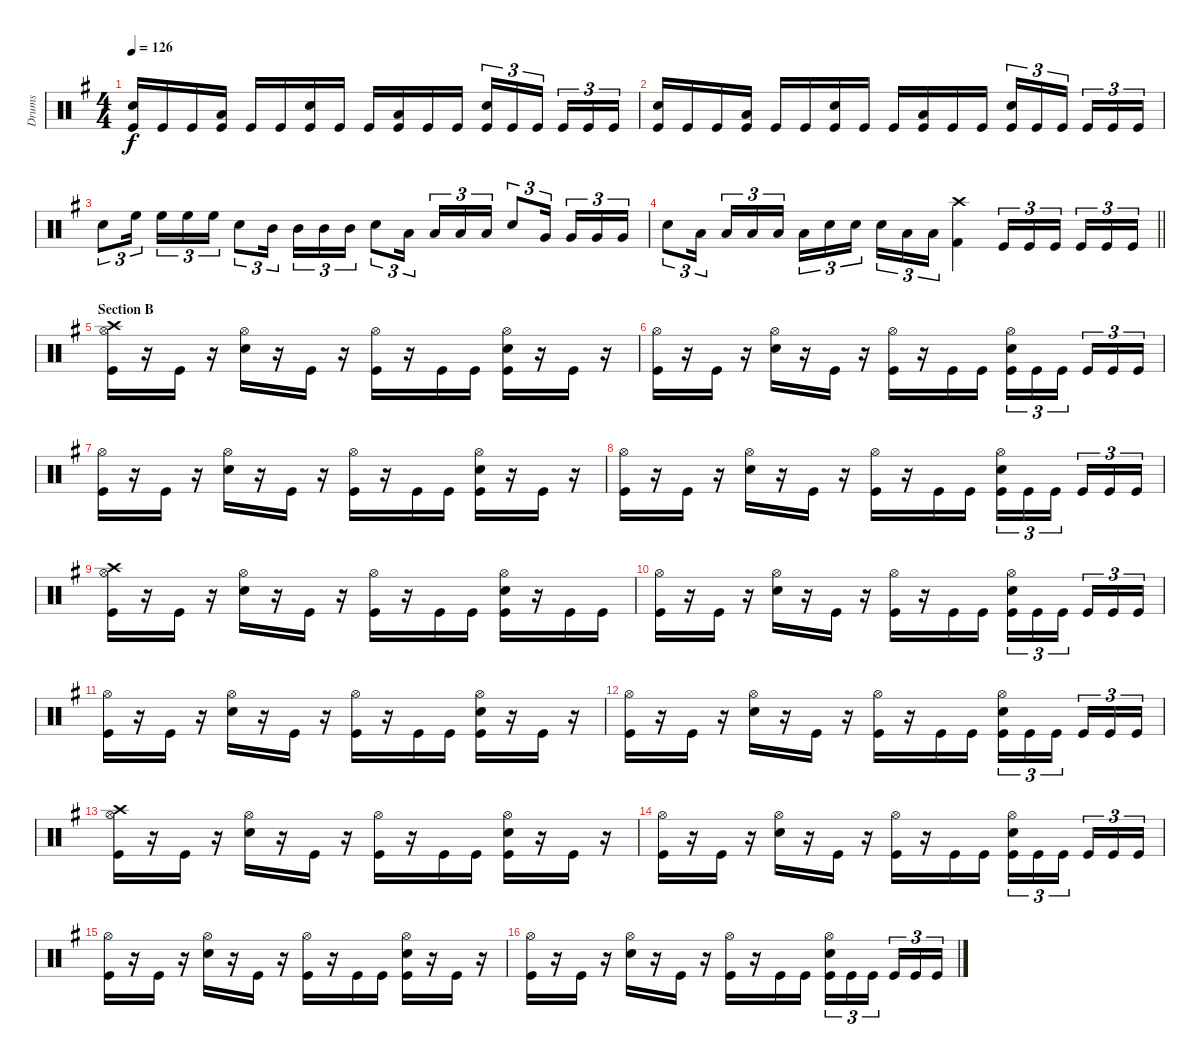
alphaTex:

\track ("Drums" "Drums") {instrument percussion}
\staff {score}
\articulation defaults
\ts (4 4)
\tempo 126
\clef neutral
\ks eminor
("Snare (hit) 2" "Kick (hit)").16{dy f} "Kick (hit)".16 "Kick (hit)".16 ("Low Floor Tom (hit)" "Kick (hit)").16 "Kick (hit)".16 "Kick (hit)".16 ("Snare (hit) 2" "Kick (hit)").16 "Kick (hit)".16 "Kick (hit)".16 ("Low Floor Tom (hit)" "Kick (hit)").16 "Kick (hit)".16 "Kick (hit)".16 ("Snare (hit) 2" "Kick (hit)").16{tu (3 2)} "Kick (hit)".16{tu (3 2)} "Kick (hit)".16{tu (3 2) beam splitsecondary} "Kick (hit)".16{tu (3 2)} "Kick (hit)".16{tu (3 2)} "Kick (hit)".16{tu (3 2)} |
("Snare (hit) 2" "Kick (hit)").16 "Kick (hit)".16 "Kick (hit)".16 ("Low Floor Tom (hit)" "Kick (hit)").16 "Kick (hit)".16 "Kick (hit)".16 ("Snare (hit) 2" "Kick (hit)").16 "Kick (hit)".16 "Kick (hit)".16 ("Low Floor Tom (hit)" "Kick (hit)").16 "Kick (hit)".16 "Kick (hit)".16 ("Snare (hit) 2" "Kick (hit)").16{tu (3 2)} "Kick (hit)".16{tu (3 2)} "Kick (hit)".16{tu (3 2) beam splitsecondary} "Kick (hit)".16{tu (3 2)} "Kick (hit)".16{tu (3 2)} "Kick (hit)".16{tu (3 2)} |
"Snare (hit) 2".8{tu (3 2)} "High Floor Tom (hit)".16{tu (3 2) beam splitsecondary} "High Floor Tom (hit)".16{tu (3 2)} "High Floor Tom (hit)".16{tu (3 2)} "High Floor Tom (hit)".16{tu (3 2)} "Snare (hit) 2".8{tu (3 2)} "Mid Tom (hit)".16{tu (3 2) beam splitsecondary} "Mid Tom (hit)".16{tu (3 2)} "Mid Tom (hit)".16{tu (3 2)} "Mid Tom (hit)".16{tu (3 2)} "Snare (hit) 2".8{tu (3 2)} "Low Tom (hit)".16{tu (3 2) beam splitsecondary} "Low Tom (hit)".16{tu (3 2)} "Low Tom (hit)".16{tu (3 2)} "Low Tom (hit)".16{tu (3 2)} "Snare (hit) 2".8{tu (3 2)} "Very Low Tom (hit)".16{tu (3 2) beam splitsecondary} "Very Low Tom (hit)".16{tu (3 2)} "Very Low Tom (hit)".16{tu (3 2)} "Very Low Tom (hit)".16{tu (3 2)} |
\barLineRight lightlight "Snare (hit) 2".8{tu (3 2)} "Low Floor Tom (hit)".16{tu (3 2) beam splitsecondary} "Low Floor Tom (hit)".16{tu (3 2)} "Low Floor Tom (hit)".16{tu (3 2)} "Low Floor Tom (hit)".16{tu (3 2)} "Low Floor Tom (hit)".16{tu (3 2)} "Snare (hit) 2".16{tu (3 2)} "Snare (hit) 2".16{tu (3 2) beam splitsecondary} "Snare (hit) 2".16{tu (3 2)} "Low Tom (hit)".16{tu (3 2)} "Low Tom (hit)".16{tu (3 2)}
("Crash high (hit)" "Kick (hit) 2").4 "Kick (hit)".16{tu (3 2)} "Kick (hit)".16{tu (3 2)} "Kick (hit)".16{tu (3 2) beam splitsecondary} "Kick (hit)".16{tu (3 2)} "Kick (hit)".16{tu (3 2)} "Kick (hit)".16{tu (3 2)} |
\section ("" "Section B")
("Crash high (hit)" "Hi-Hat (open)" "Kick (hit)").16 r.16 "Kick (hit)".16 r.16 ("Hi-Hat (open)" "Snare (hit) 2").16 r.16 "Kick (hit)".16 r.16 ("Hi-Hat (open)" "Kick (hit)").16 r.16 "Kick (hit)".16 "Kick (hit)".16 ("Hi-Hat (open)" "Snare (hit) 2" "Kick (hit)").16 r.16 "Kick (hit)".16 r.16 |
("Hi-Hat (open)" "Kick (hit)").16 r.16 "Kick (hit)".16 r.16 ("Hi-Hat (open)" "Snare (hit) 2").16 r.16 "Kick (hit)".16 r.16 ("Hi-Hat (open)" "Kick (hit)").16 r.16 "Kick (hit)".16 "Kick (hit)".16 ("Hi-Hat (open)" "Snare (hit) 2" "Kick (hit)").16{tu (3 2)} "Kick (hit)".16{tu (3 2)} "Kick (hit)".16{tu (3 2) beam splitsecondary} "Kick (hit)".16{tu (3 2)} "Kick (hit)".16{tu (3 2)} "Kick (hit)".16{tu (3 2)} |
("Hi-Hat (open)" "Kick (hit)").16 r.16 "Kick (hit)".16 r.16 ("Hi-Hat (open)" "Snare (hit) 2").16 r.16 "Kick (hit)".16 r.16 ("Hi-Hat (open)" "Kick (hit)").16 r.16 "Kick (hit)".16 "Kick (hit)".16 ("Hi-Hat (open)" "Snare (hit) 2" "Kick (hit)").16 r.16 "Kick (hit)".16 r.16 |
("Hi-Hat (open)" "Kick (hit)").16 r.16 "Kick (hit)".16 r.16 ("Hi-Hat (open)" "Snare (hit) 2").16 r.16 "Kick (hit)".16 r.16 ("Hi-Hat (open)" "Kick (hit)").16 r.16 "Kick (hit)".16 "Kick (hit)".16 ("Hi-Hat (open)" "Snare (hit) 2" "Kick (hit)").16{tu (3 2)} "Kick (hit)".16{tu (3 2)} "Kick (hit)".16{tu (3 2) beam splitsecondary} "Kick (hit)".16{tu (3 2)} "Kick (hit)".16{tu (3 2)} "Kick (hit)".16{tu (3 2)} |
("Crash high (hit)" "Hi-Hat (open)" "Kick (hit)").16 r.16 "Kick (hit)".16 r.16 ("Hi-Hat (open)" "Snare (hit) 2").16 r.16 "Kick (hit)".16 r.16 ("Hi-Hat (open)" "Kick (hit)").16 r.16 "Kick (hit)".16 "Kick (hit)".16 ("Hi-Hat (open)" "Snare (hit) 2" "Kick (hit)").16 r.16 "Kick (hit)".16 "Kick (hit)".16 |
("Hi-Hat (open)" "Kick (hit)").16 r.16 "Kick (hit)".16 r.16 ("Hi-Hat (open)" "Snare (hit) 2").16 r.16 "Kick (hit)".16 r.16 ("Hi-Hat (open)" "Kick (hit)").16 r.16 "Kick (hit)".16 "Kick (hit)".16 ("Hi-Hat (open)" "Snare (hit) 2" "Kick (hit)").16{tu (3 2)} "Kick (hit)".16{tu (3 2)} "Kick (hit)".16{tu (3 2) beam splitsecondary} "Kick (hit)".16{tu (3 2)} "Kick (hit)".16{tu (3 2)} "Kick (hit)".16{tu (3 2)} |
("Hi-Hat (open)" "Kick (hit)").16 r.16 "Kick (hit)".16 r.16 ("Hi-Hat (open)" "Snare (hit) 2").16 r.16 "Kick (hit)".16 r.16 ("Hi-Hat (open)" "Kick (hit)").16 r.16 "Kick (hit)".16 "Kick (hit)".16 ("Hi-Hat (open)" "Snare (hit) 2" "Kick (hit)").16 r.16 "Kick (hit)".16 r.16 |
("Hi-Hat (open)" "Kick (hit)").16 r.16 "Kick (hit)".16 r.16 ("Hi-Hat (open)" "Snare (hit) 2").16 r.16 "Kick (hit)".16 r.16 ("Hi-Hat (open)" "Kick (hit)").16 r.16 "Kick (hit)".16 "Kick (hit)".16 ("Hi-Hat (open)" "Snare (hit) 2" "Kick (hit)").16{tu (3 2)} "Kick (hit)".16{tu (3 2)} "Kick (hit)".16{tu (3 2) beam splitsecondary} "Kick (hit)".16{tu (3 2)} "Kick (hit)".16{tu (3 2)} "Kick (hit)".16{tu (3 2)} |
("Crash high (hit)" "Hi-Hat (open)" "Kick (hit)").16 r.16 "Kick (hit)".16 r.16 ("Hi-Hat (open)" "Snare (hit) 2").16 r.16 "Kick (hit)".16 r.16 ("Hi-Hat (open)" "Kick (hit)").16 r.16 "Kick (hit)".16 "Kick (hit)".16 ("Hi-Hat (open)" "Snare (hit) 2" "Kick (hit)").16 r.16 "Kick (hit)".16 r.16 |
("Hi-Hat (open)" "Kick (hit)").16 r.16 "Kick (hit)".16 r.16 ("Hi-Hat (open)" "Snare (hit) 2").16 r.16 "Kick (hit)".16 r.16 ("Hi-Hat (open)" "Kick (hit)").16 r.16 "Kick (hit)".16 "Kick (hit)".16 ("Hi-Hat (open)" "Snare (hit) 2" "Kick (hit)").16{tu (3 2)} "Kick (hit)".16{tu (3 2)} "Kick (hit)".16{tu (3 2) beam splitsecondary} "Kick (hit)".16{tu (3 2)} "Kick (hit)".16{tu (3 2)} "Kick (hit)".16{tu (3 2)} |
("Hi-Hat (open)" "Kick (hit)").16 r.16 "Kick (hit)".16 r.16 ("Hi-Hat (open)" "Snare (hit) 2").16 r.16 "Kick (hit)".16 r.16 ("Hi-Hat (open)" "Kick (hit)").16 r.16 "Kick (hit)".16 "Kick (hit)".16 ("Hi-Hat (open)" "Snare (hit) 2" "Kick (hit)").16 r.16 "Kick (hit)".16 r.16 |
("Hi-Hat (open)" "Kick (hit)").16 r.16 "Kick (hit)".16 r.16 ("Hi-Hat (open)" "Snare (hit) 2").16 r.16 "Kick (hit)".16 r.16 ("Hi-Hat (open)" "Kick (hit)").16 r.16 "Kick (hit)".16 "Kick (hit)".16 ("Hi-Hat (open)" "Snare (hit) 2" "Kick (hit)").16{tu (3 2)} "Kick (hit)".16{tu (3 2)} "Kick (hit)".16{tu (3 2) beam splitsecondary} "Kick (hit)".16{tu (3 2)} "Kick (hit)".16{tu (3 2)} "Kick (hit)".16{tu (3 2)}
